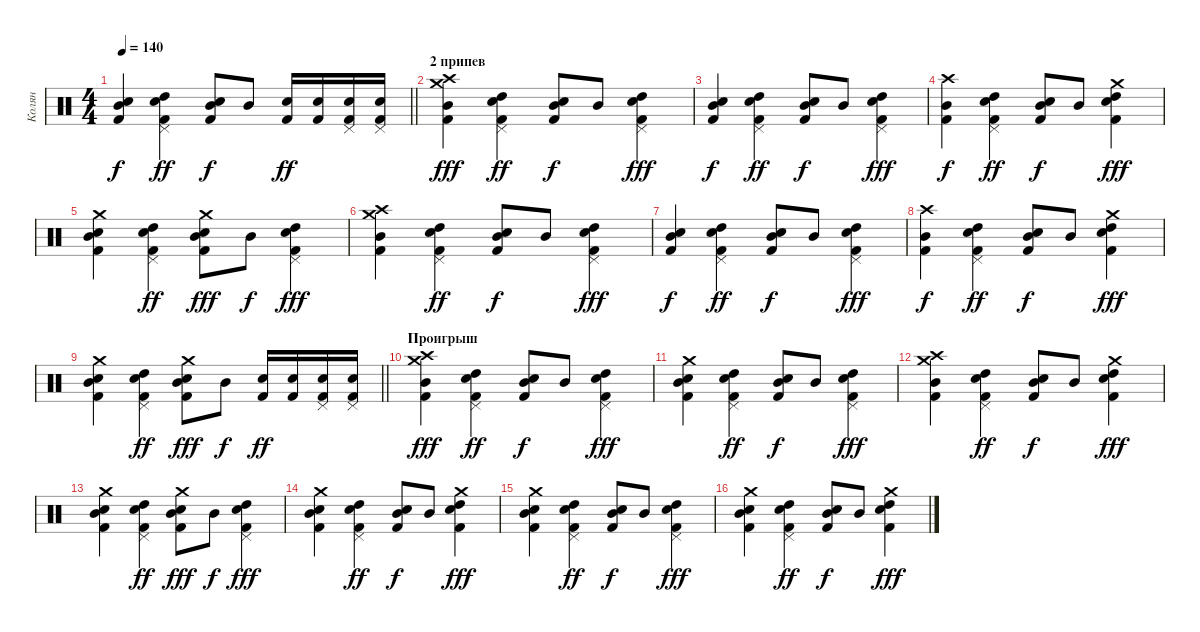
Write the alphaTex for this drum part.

\track ("Колян" "Колян") {instrument percussion}
\staff {score}
\articulation defaults
\ts (4 4)
\tempo 140
\clef neutral
\barLineRight lightlight
\ks c
("Mid Tom (hit)" "Snare (hit) 2" "Kick (hit) 2").4{dy f} ("Pedal Hi-Hat (hit)" "High Tom (hit)" "Snare (hit) 2" "Kick (hit) 2").4{dy ff} ("Mid Tom (hit)" "Snare (hit) 2" "Kick (hit) 2").8{dy f} "Mid Tom (hit)".8 ("Snare (hit) 2" "Kick (hit) 2").16{dy ff} ("Snare (hit) 2" "Kick (hit) 2").16 ("Pedal Hi-Hat (hit)" "Snare (hit) 2" "Kick (hit) 2").16 ("Pedal Hi-Hat (hit)" "Snare (hit) 2" "Kick (hit) 2").16 |
\section ("" "2 припев")
("Crash medium (hit)" "Mid Tom (hit)" "Crash high (hit)" "Kick (hit) 2").4{dy fff} ("Pedal Hi-Hat (hit)" "High Tom (hit)" "Snare (hit) 2" "Kick (hit) 2").4{dy ff} ("Mid Tom (hit)" "Snare (hit) 2" "Kick (hit) 2").8{dy f} "Mid Tom (hit)".8 ("Pedal Hi-Hat (hit)" "High Tom (hit)" "Snare (hit) 2" "Kick (hit) 2").4{dy fff} |
("Mid Tom (hit)" "Snare (hit) 2" "Kick (hit) 2").4{dy f} ("Pedal Hi-Hat (hit)" "High Tom (hit)" "Snare (hit) 2" "Kick (hit) 2").4{dy ff} ("Mid Tom (hit)" "Snare (hit) 2" "Kick (hit) 2").8{dy f} "Mid Tom (hit)".8 ("Pedal Hi-Hat (hit)" "High Tom (hit)" "Snare (hit) 2" "Kick (hit) 2").4{dy fff} |
("Mid Tom (hit)" "Crash high (hit)" "Kick (hit) 2").4{dy f} ("Pedal Hi-Hat (hit)" "High Tom (hit)" "Snare (hit) 2" "Kick (hit) 2").4{dy ff} ("Mid Tom (hit)" "Snare (hit) 2" "Kick (hit) 2").8{dy f} "Mid Tom (hit)".8 ("Crash medium (hit)" "High Tom (hit)" "Snare (hit) 2" "Kick (hit) 2").4{dy fff} |
("Crash medium (hit)" "Mid Tom (hit)" "Snare (hit) 2" "Kick (hit) 2").4 ("Pedal Hi-Hat (hit)" "High Tom (hit)" "Snare (hit) 2" "Kick (hit) 2").4{dy ff} ("Crash medium (hit)" "Mid Tom (hit)" "Snare (hit) 2" "Kick (hit) 2").8{dy fff} "Mid Tom (hit)".8{dy f} ("Pedal Hi-Hat (hit)" "High Tom (hit)" "Snare (hit) 2" "Kick (hit) 2").4{dy fff} |
("Crash medium (hit)" "Mid Tom (hit)" "Crash high (hit)" "Kick (hit) 2").4 ("Pedal Hi-Hat (hit)" "High Tom (hit)" "Snare (hit) 2" "Kick (hit) 2").4{dy ff} ("Mid Tom (hit)" "Snare (hit) 2" "Kick (hit) 2").8{dy f} "Mid Tom (hit)".8 ("Pedal Hi-Hat (hit)" "High Tom (hit)" "Snare (hit) 2" "Kick (hit) 2").4{dy fff} |
("Mid Tom (hit)" "Snare (hit) 2" "Kick (hit) 2").4{dy f} ("Pedal Hi-Hat (hit)" "High Tom (hit)" "Snare (hit) 2" "Kick (hit) 2").4{dy ff} ("Mid Tom (hit)" "Snare (hit) 2" "Kick (hit) 2").8{dy f} "Mid Tom (hit)".8 ("Pedal Hi-Hat (hit)" "High Tom (hit)" "Snare (hit) 2" "Kick (hit) 2").4{dy fff} |
("Mid Tom (hit)" "Crash high (hit)" "Kick (hit) 2").4{dy f} ("Pedal Hi-Hat (hit)" "High Tom (hit)" "Snare (hit) 2" "Kick (hit) 2").4{dy ff} ("Mid Tom (hit)" "Snare (hit) 2" "Kick (hit) 2").8{dy f} "Mid Tom (hit)".8 ("Crash medium (hit)" "High Tom (hit)" "Snare (hit) 2" "Kick (hit) 2").4{dy fff} |
\barLineRight lightlight
("Crash medium (hit)" "Mid Tom (hit)" "Snare (hit) 2" "Kick (hit) 2").4 ("Pedal Hi-Hat (hit)" "High Tom (hit)" "Snare (hit) 2" "Kick (hit) 2").4{dy ff} ("Crash medium (hit)" "Mid Tom (hit)" "Snare (hit) 2" "Kick (hit) 2").8{dy fff} "Mid Tom (hit)".8{dy f} ("Snare (hit) 2" "Kick (hit) 2").16{dy ff} ("Snare (hit) 2" "Kick (hit) 2").16 ("Pedal Hi-Hat (hit)" "Snare (hit) 2" "Kick (hit) 2").16 ("Pedal Hi-Hat (hit)" "Snare (hit) 2" "Kick (hit) 2").16 |
\section ("" "Проигрыш")
("Crash medium (hit)" "Mid Tom (hit)" "Crash high (hit)" "Kick (hit) 2").4{dy fff} ("Pedal Hi-Hat (hit)" "High Tom (hit)" "Snare (hit) 2" "Kick (hit) 2").4{dy ff} ("Mid Tom (hit)" "Snare (hit) 2" "Kick (hit) 2").8{dy f} "Mid Tom (hit)".8 ("Pedal Hi-Hat (hit)" "High Tom (hit)" "Snare (hit) 2" "Kick (hit) 2").4{dy fff} |
("Crash medium (hit)" "Mid Tom (hit)" "Snare (hit) 2" "Kick (hit) 2").4 ("Pedal Hi-Hat (hit)" "High Tom (hit)" "Snare (hit) 2" "Kick (hit) 2").4{dy ff} ("Mid Tom (hit)" "Snare (hit) 2" "Kick (hit) 2").8{dy f} "Mid Tom (hit)".8 ("Pedal Hi-Hat (hit)" "High Tom (hit)" "Snare (hit) 2" "Kick (hit) 2").4{dy fff} |
("Crash medium (hit)" "Mid Tom (hit)" "Crash high (hit)" "Kick (hit) 2").4 ("Pedal Hi-Hat (hit)" "High Tom (hit)" "Snare (hit) 2" "Kick (hit) 2").4{dy ff} ("Mid Tom (hit)" "Snare (hit) 2" "Kick (hit) 2").8{dy f} "Mid Tom (hit)".8 ("Crash medium (hit)" "High Tom (hit)" "Snare (hit) 2" "Kick (hit) 2").4{dy fff} |
("Crash medium (hit)" "Mid Tom (hit)" "Snare (hit) 2" "Kick (hit) 2").4 ("Pedal Hi-Hat (hit)" "High Tom (hit)" "Snare (hit) 2" "Kick (hit) 2").4{dy ff} ("Crash medium (hit)" "Mid Tom (hit)" "Snare (hit) 2" "Kick (hit) 2").8{dy fff} "Mid Tom (hit)".8{dy f} ("Pedal Hi-Hat (hit)" "High Tom (hit)" "Snare (hit) 2" "Kick (hit) 2").4{dy fff} |
("Crash medium (hit)" "Mid Tom (hit)" "Snare (hit) 2" "Kick (hit) 2").4 ("Pedal Hi-Hat (hit)" "High Tom (hit)" "Snare (hit) 2" "Kick (hit) 2").4{dy ff} ("Mid Tom (hit)" "Snare (hit) 2" "Kick (hit) 2").8{dy f} "Mid Tom (hit)".8 ("Crash medium (hit)" "High Tom (hit)" "Snare (hit) 2" "Kick (hit) 2").4{dy fff} |
("Crash medium (hit)" "Mid Tom (hit)" "Snare (hit) 2" "Kick (hit) 2").4 ("Pedal Hi-Hat (hit)" "High Tom (hit)" "Snare (hit) 2" "Kick (hit) 2").4{dy ff} ("Mid Tom (hit)" "Snare (hit) 2" "Kick (hit) 2").8{dy f} "Mid Tom (hit)".8 ("Pedal Hi-Hat (hit)" "High Tom (hit)" "Snare (hit) 2" "Kick (hit) 2").4{dy fff} |
("Crash medium (hit)" "Mid Tom (hit)" "Snare (hit) 2" "Kick (hit) 2").4 ("Pedal Hi-Hat (hit)" "High Tom (hit)" "Snare (hit) 2" "Kick (hit) 2").4{dy ff} ("Mid Tom (hit)" "Snare (hit) 2" "Kick (hit) 2").8{dy f} "Mid Tom (hit)".8 ("Crash medium (hit)" "High Tom (hit)" "Snare (hit) 2" "Kick (hit) 2").4{dy fff}
